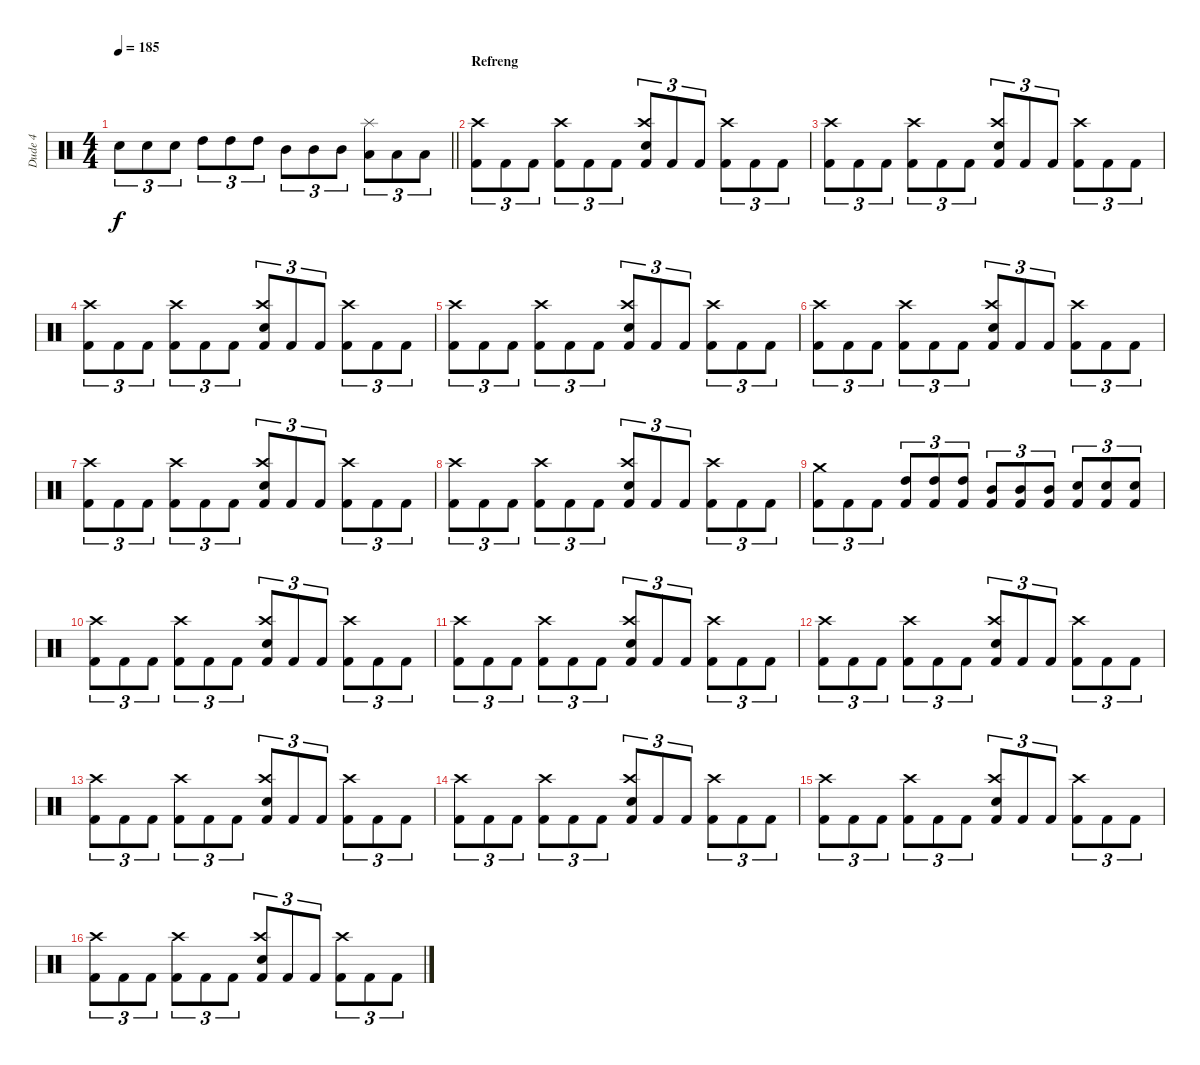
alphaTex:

\track ("Dude 4" "Dude 4") {instrument percussion}
\staff {score}
\articulation defaults
\ts (4 4)
\tempo 185
\clef neutral
\barLineRight lightlight
\ks c "Electric Snare (hit)".8{tu (3 2) dy f} "Electric Snare (hit)".8{tu (3 2)} "Electric Snare (hit)".8{tu (3 2)} "High Tom (hit)".8{tu (3 2)} "High Tom (hit)".8{tu (3 2)} "High Tom (hit)".8{tu (3 2)} "Mid Tom (hit)".8{tu (3 2)} "Mid Tom (hit)".8{tu (3 2)} "Mid Tom (hit)".8{tu (3 2)}
("Splash (hit)" "Low Tom (hit)").8{tu (3 2)} "Low Tom (hit)".8{tu (3 2)} "Low Tom (hit)".8{tu (3 2)} |
\section ("" "Refreng")
("Crash high (hit)" "Kick (hit) 2").8{tu (3 2)} "Kick (hit) 2".8{tu (3 2)} "Kick (hit) 2".8{tu (3 2)} ("Crash high (hit)" "Kick (hit) 2").8{tu (3 2)} "Kick (hit) 2".8{tu (3 2)} "Kick (hit) 2".8{tu (3 2)} ("Crash high (hit)" "Electric Snare (hit)" "Kick (hit) 2").8{tu (3 2)} "Kick (hit) 2".8{tu (3 2)} "Kick (hit) 2".8{tu (3 2)} ("Crash high (hit)" "Kick (hit) 2").8{tu (3 2)} "Kick (hit) 2".8{tu (3 2)} "Kick (hit) 2".8{tu (3 2)} |
("Crash high (hit)" "Kick (hit) 2").8{tu (3 2)} "Kick (hit) 2".8{tu (3 2)} "Kick (hit) 2".8{tu (3 2)} ("Crash high (hit)" "Kick (hit) 2").8{tu (3 2)} "Kick (hit) 2".8{tu (3 2)} "Kick (hit) 2".8{tu (3 2)} ("Crash high (hit)" "Electric Snare (hit)" "Kick (hit) 2").8{tu (3 2)} "Kick (hit) 2".8{tu (3 2)} "Kick (hit) 2".8{tu (3 2)} ("Crash high (hit)" "Kick (hit) 2").8{tu (3 2)} "Kick (hit) 2".8{tu (3 2)} "Kick (hit) 2".8{tu (3 2)} |
("Crash high (hit)" "Kick (hit) 2").8{tu (3 2)} "Kick (hit) 2".8{tu (3 2)} "Kick (hit) 2".8{tu (3 2)} ("Crash high (hit)" "Kick (hit) 2").8{tu (3 2)} "Kick (hit) 2".8{tu (3 2)} "Kick (hit) 2".8{tu (3 2)} ("Crash high (hit)" "Electric Snare (hit)" "Kick (hit) 2").8{tu (3 2)} "Kick (hit) 2".8{tu (3 2)} "Kick (hit) 2".8{tu (3 2)} ("Crash high (hit)" "Kick (hit) 2").8{tu (3 2)} "Kick (hit) 2".8{tu (3 2)} "Kick (hit) 2".8{tu (3 2)} |
("Crash high (hit)" "Kick (hit) 2").8{tu (3 2)} "Kick (hit) 2".8{tu (3 2)} "Kick (hit) 2".8{tu (3 2)} ("Crash high (hit)" "Kick (hit) 2").8{tu (3 2)} "Kick (hit) 2".8{tu (3 2)} "Kick (hit) 2".8{tu (3 2)} ("Crash high (hit)" "Electric Snare (hit)" "Kick (hit) 2").8{tu (3 2)} "Kick (hit) 2".8{tu (3 2)} "Kick (hit) 2".8{tu (3 2)} ("Crash high (hit)" "Kick (hit) 2").8{tu (3 2)} "Kick (hit) 2".8{tu (3 2)} "Kick (hit) 2".8{tu (3 2)} |
("Crash high (hit)" "Kick (hit) 2").8{tu (3 2)} "Kick (hit) 2".8{tu (3 2)} "Kick (hit) 2".8{tu (3 2)} ("Crash high (hit)" "Kick (hit) 2").8{tu (3 2)} "Kick (hit) 2".8{tu (3 2)} "Kick (hit) 2".8{tu (3 2)} ("Crash high (hit)" "Electric Snare (hit)" "Kick (hit) 2").8{tu (3 2)} "Kick (hit) 2".8{tu (3 2)} "Kick (hit) 2".8{tu (3 2)} ("Crash high (hit)" "Kick (hit) 2").8{tu (3 2)} "Kick (hit) 2".8{tu (3 2)} "Kick (hit) 2".8{tu (3 2)} |
("Crash high (hit)" "Kick (hit) 2").8{tu (3 2)} "Kick (hit) 2".8{tu (3 2)} "Kick (hit) 2".8{tu (3 2)} ("Crash high (hit)" "Kick (hit) 2").8{tu (3 2)} "Kick (hit) 2".8{tu (3 2)} "Kick (hit) 2".8{tu (3 2)} ("Crash high (hit)" "Electric Snare (hit)" "Kick (hit) 2").8{tu (3 2)} "Kick (hit) 2".8{tu (3 2)} "Kick (hit) 2".8{tu (3 2)} ("Crash high (hit)" "Kick (hit) 2").8{tu (3 2)} "Kick (hit) 2".8{tu (3 2)} "Kick (hit) 2".8{tu (3 2)} |
("Crash high (hit)" "Kick (hit) 2").8{tu (3 2)} "Kick (hit) 2".8{tu (3 2)} "Kick (hit) 2".8{tu (3 2)} ("Crash high (hit)" "Kick (hit) 2").8{tu (3 2)} "Kick (hit) 2".8{tu (3 2)} "Kick (hit) 2".8{tu (3 2)} ("Crash high (hit)" "Electric Snare (hit)" "Kick (hit) 2").8{tu (3 2)} "Kick (hit) 2".8{tu (3 2)} "Kick (hit) 2".8{tu (3 2)} ("Crash high (hit)" "Kick (hit) 2").8{tu (3 2)} "Kick (hit) 2".8{tu (3 2)} "Kick (hit) 2".8{tu (3 2)} |
("Crash medium (hit)" "Kick (hit) 2").8{tu (3 2)} "Kick (hit) 2".8{tu (3 2)} "Kick (hit) 2".8{tu (3 2)} ("High Tom (hit)" "Kick (hit) 2").8{tu (3 2)} ("High Tom (hit)" "Kick (hit) 2").8{tu (3 2)} ("High Tom (hit)" "Kick (hit) 2").8{tu (3 2)} ("Mid Tom (hit)" "Kick (hit) 2").8{tu (3 2)} ("Mid Tom (hit)" "Kick (hit) 2").8{tu (3 2)} ("Mid Tom (hit)" "Kick (hit) 2").8{tu (3 2)} ("Electric Snare (hit)" "Kick (hit) 2").8{tu (3 2)} ("Electric Snare (hit)" "Kick (hit) 2").8{tu (3 2)} ("Electric Snare (hit)" "Kick (hit) 2").8{tu (3 2)} |
("Crash high (hit)" "Kick (hit) 2").8{tu (3 2)} "Kick (hit) 2".8{tu (3 2)} "Kick (hit) 2".8{tu (3 2)} ("Crash high (hit)" "Kick (hit) 2").8{tu (3 2)} "Kick (hit) 2".8{tu (3 2)} "Kick (hit) 2".8{tu (3 2)} ("Crash high (hit)" "Electric Snare (hit)" "Kick (hit) 2").8{tu (3 2)} "Kick (hit) 2".8{tu (3 2)} "Kick (hit) 2".8{tu (3 2)} ("Crash high (hit)" "Kick (hit) 2").8{tu (3 2)} "Kick (hit) 2".8{tu (3 2)} "Kick (hit) 2".8{tu (3 2)} |
("Crash high (hit)" "Kick (hit) 2").8{tu (3 2)} "Kick (hit) 2".8{tu (3 2)} "Kick (hit) 2".8{tu (3 2)} ("Crash high (hit)" "Kick (hit) 2").8{tu (3 2)} "Kick (hit) 2".8{tu (3 2)} "Kick (hit) 2".8{tu (3 2)} ("Crash high (hit)" "Electric Snare (hit)" "Kick (hit) 2").8{tu (3 2)} "Kick (hit) 2".8{tu (3 2)} "Kick (hit) 2".8{tu (3 2)} ("Crash high (hit)" "Kick (hit) 2").8{tu (3 2)} "Kick (hit) 2".8{tu (3 2)} "Kick (hit) 2".8{tu (3 2)} |
("Crash high (hit)" "Kick (hit) 2").8{tu (3 2)} "Kick (hit) 2".8{tu (3 2)} "Kick (hit) 2".8{tu (3 2)} ("Crash high (hit)" "Kick (hit) 2").8{tu (3 2)} "Kick (hit) 2".8{tu (3 2)} "Kick (hit) 2".8{tu (3 2)} ("Crash high (hit)" "Electric Snare (hit)" "Kick (hit) 2").8{tu (3 2)} "Kick (hit) 2".8{tu (3 2)} "Kick (hit) 2".8{tu (3 2)} ("Crash high (hit)" "Kick (hit) 2").8{tu (3 2)} "Kick (hit) 2".8{tu (3 2)} "Kick (hit) 2".8{tu (3 2)} |
("Crash high (hit)" "Kick (hit) 2").8{tu (3 2)} "Kick (hit) 2".8{tu (3 2)} "Kick (hit) 2".8{tu (3 2)} ("Crash high (hit)" "Kick (hit) 2").8{tu (3 2)} "Kick (hit) 2".8{tu (3 2)} "Kick (hit) 2".8{tu (3 2)} ("Crash high (hit)" "Electric Snare (hit)" "Kick (hit) 2").8{tu (3 2)} "Kick (hit) 2".8{tu (3 2)} "Kick (hit) 2".8{tu (3 2)} ("Crash high (hit)" "Kick (hit) 2").8{tu (3 2)} "Kick (hit) 2".8{tu (3 2)} "Kick (hit) 2".8{tu (3 2)} |
("Crash high (hit)" "Kick (hit) 2").8{tu (3 2)} "Kick (hit) 2".8{tu (3 2)} "Kick (hit) 2".8{tu (3 2)} ("Crash high (hit)" "Kick (hit) 2").8{tu (3 2)} "Kick (hit) 2".8{tu (3 2)} "Kick (hit) 2".8{tu (3 2)} ("Crash high (hit)" "Electric Snare (hit)" "Kick (hit) 2").8{tu (3 2)} "Kick (hit) 2".8{tu (3 2)} "Kick (hit) 2".8{tu (3 2)} ("Crash high (hit)" "Kick (hit) 2").8{tu (3 2)} "Kick (hit) 2".8{tu (3 2)} "Kick (hit) 2".8{tu (3 2)} |
("Crash high (hit)" "Kick (hit) 2").8{tu (3 2)} "Kick (hit) 2".8{tu (3 2)} "Kick (hit) 2".8{tu (3 2)} ("Crash high (hit)" "Kick (hit) 2").8{tu (3 2)} "Kick (hit) 2".8{tu (3 2)} "Kick (hit) 2".8{tu (3 2)} ("Crash high (hit)" "Electric Snare (hit)" "Kick (hit) 2").8{tu (3 2)} "Kick (hit) 2".8{tu (3 2)} "Kick (hit) 2".8{tu (3 2)} ("Crash high (hit)" "Kick (hit) 2").8{tu (3 2)} "Kick (hit) 2".8{tu (3 2)} "Kick (hit) 2".8{tu (3 2)} |
("Crash high (hit)" "Kick (hit) 2").8{tu (3 2)} "Kick (hit) 2".8{tu (3 2)} "Kick (hit) 2".8{tu (3 2)} ("Crash high (hit)" "Kick (hit) 2").8{tu (3 2)} "Kick (hit) 2".8{tu (3 2)} "Kick (hit) 2".8{tu (3 2)} ("Crash high (hit)" "Electric Snare (hit)" "Kick (hit) 2").8{tu (3 2)} "Kick (hit) 2".8{tu (3 2)} "Kick (hit) 2".8{tu (3 2)} ("Crash high (hit)" "Kick (hit) 2").8{tu (3 2)} "Kick (hit) 2".8{tu (3 2)} "Kick (hit) 2".8{tu (3 2)}
